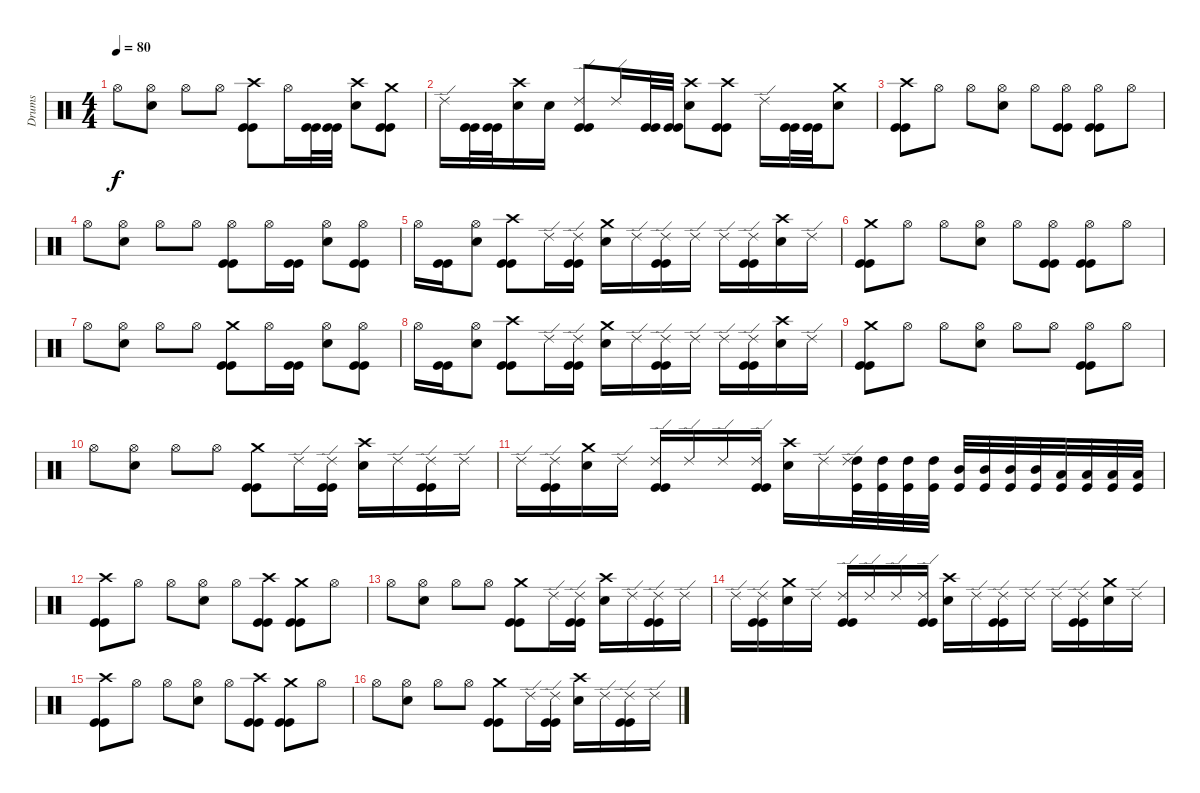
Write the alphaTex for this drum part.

\track ("Drums" "Drums") {instrument percussion}
\staff {score}
\articulation defaults
\ts (4 4)
\tempo 80
\clef neutral
\ks c "Hi-Hat (open)".8{dy f}
("Electric Snare (hit)" "Hi-Hat (open)").8 "Hi-Hat (open)".8 "Hi-Hat (open)".8 ("Kick (hit)" "Kick (hit)" "Crash high (hit)").8 "Hi-Hat (open)".16 ("Kick (hit)" "Kick (hit)").32 ("Kick (hit)" "Kick (hit)").32 ("Electric Snare (hit)" "Crash high (hit)").8 ("Kick (hit)" "Kick (hit)" "Crash medium (hit)").8 |
"Ride (edge) 2".16 ("Kick (hit)" "Kick (hit)").32 ("Kick (hit)" "Kick (hit)").32 ("Electric Snare (hit)" "Crash high (hit)").16 "Electric Snare (hit)".16 ("Kick (hit)" "Kick (hit)" "Ride (edge) 2").8 "Ride (edge) 2".16 ("Kick (hit)" "Kick (hit)").32 ("Kick (hit)" "Kick (hit)").32 ("Electric Snare (hit)" "Crash high (hit)").8 ("Kick (hit)" "Kick (hit)" "Crash high (hit)").8 "Ride (edge) 2".16 ("Kick (hit)" "Kick (hit)").32 ("Kick (hit)" "Kick (hit)").32 ("Electric Snare (hit)" "Crash medium (hit)").8 |
("Kick (hit)" "Kick (hit)" "Crash high (hit)").8 "Hi-Hat (open)".8 "Hi-Hat (open)".8 ("Electric Snare (hit)" "Hi-Hat (open)").8 "Hi-Hat (open)".8 ("Kick (hit)" "Kick (hit)" "Hi-Hat (open)").8 ("Kick (hit)" "Kick (hit)" "Hi-Hat (open)").8 "Hi-Hat (open)".8 |
"Hi-Hat (open)".8 ("Electric Snare (hit)" "Hi-Hat (open)").8 "Hi-Hat (open)".8 "Hi-Hat (open)".8 ("Kick (hit)" "Kick (hit)" "Hi-Hat (open)").8 "Hi-Hat (open)".16 ("Kick (hit)" "Kick (hit)").16 ("Electric Snare (hit)" "Hi-Hat (open)").8 ("Kick (hit)" "Kick (hit)" "Hi-Hat (open)").8 |
"Hi-Hat (open)".16 ("Kick (hit)" "Kick (hit)").16 ("Electric Snare (hit)" "Hi-Hat (open)").8 ("Kick (hit)" "Kick (hit)" "Crash high (hit)").8 "Ride (edge) 2".16 ("Kick (hit)" "Kick (hit)" "Ride (edge) 2").16 ("Electric Snare (hit)" "Crash medium (hit)").16 "Ride (edge) 2".16 ("Kick (hit)" "Kick (hit)" "Ride (edge) 2").16 "Ride (edge) 2".16 "Ride (edge) 2".16 ("Kick (hit)" "Kick (hit)" "Ride (edge) 2").16 ("Electric Snare (hit)" "Crash high (hit)").16 "Ride (edge) 2".16 |
("Kick (hit)" "Kick (hit)" "Crash medium (hit)").8 "Hi-Hat (open)".8 "Hi-Hat (open)".8 ("Electric Snare (hit)" "Hi-Hat (open)").8 "Hi-Hat (open)".8 ("Kick (hit)" "Kick (hit)" "Hi-Hat (open)").8 ("Kick (hit)" "Kick (hit)" "Hi-Hat (open)").8 "Hi-Hat (open)".8 |
"Hi-Hat (open)".8 ("Electric Snare (hit)" "Hi-Hat (open)").8 "Hi-Hat (open)".8 "Hi-Hat (open)".8 ("Kick (hit)" "Kick (hit)" "Crash medium (hit)").8 "Hi-Hat (open)".16 ("Kick (hit)" "Kick (hit)").16 ("Electric Snare (hit)" "Hi-Hat (open)").8 ("Kick (hit)" "Kick (hit)" "Hi-Hat (open)").8 |
"Hi-Hat (open)".16 ("Kick (hit)" "Kick (hit)").16 ("Electric Snare (hit)" "Hi-Hat (open)").8 ("Kick (hit)" "Kick (hit)" "Crash high (hit)").8 "Ride (edge) 2".16 ("Kick (hit)" "Kick (hit)" "Ride (edge) 2").16 ("Electric Snare (hit)" "Crash medium (hit)").16 "Ride (edge) 2".16 ("Kick (hit)" "Kick (hit)" "Ride (edge) 2").16 "Ride (edge) 2".16 "Ride (edge) 2".16 ("Kick (hit)" "Kick (hit)" "Ride (edge) 2").16 ("Electric Snare (hit)" "Crash high (hit)").16 "Ride (edge) 2".16 |
("Kick (hit)" "Kick (hit)" "Crash medium (hit)").8 "Hi-Hat (open)".8 "Hi-Hat (open)".8 ("Electric Snare (hit)" "Hi-Hat (open)").8 "Hi-Hat (open)".8 "Hi-Hat (open)".8 ("Kick (hit)" "Kick (hit)" "Hi-Hat (open)").8 "Hi-Hat (open)".8 |
"Hi-Hat (open)".8 ("Electric Snare (hit)" "Hi-Hat (open)").8 "Hi-Hat (open)".8 "Hi-Hat (open)".8 ("Kick (hit)" "Kick (hit)" "Crash medium (hit)").8 "Ride (edge) 2".16 ("Kick (hit)" "Kick (hit)" "Ride (edge) 2").16 ("Electric Snare (hit)" "Crash high (hit)").16 "Ride (edge) 2".16 ("Kick (hit)" "Kick (hit)" "Ride (edge) 2").16 "Ride (edge) 2".16 |
"Ride (edge) 2".16 ("Kick (hit)" "Kick (hit)" "Ride (edge) 2").16 ("Electric Snare (hit)" "Crash medium (hit)").16 "Ride (edge) 2".16 ("Kick (hit)" "Kick (hit)" "Ride (edge) 2").16 "Ride (edge) 2".16 "Ride (edge) 2".16 ("Kick (hit)" "Kick (hit)" "Ride (edge) 2").16 ("Electric Snare (hit)" "Crash high (hit)").16 "Ride (edge) 2".16 ("Kick (hit)" "High Tom (hit)" "Ride (edge) 2").32 ("Kick (hit)" "High Tom (hit)").32 ("Kick (hit)" "High Tom (hit)").32 ("Kick (hit)" "High Tom (hit)").32 ("Kick (hit)" "Mid Tom (hit)").32 ("Kick (hit)" "Mid Tom (hit)").32 ("Kick (hit)" "Mid Tom (hit)").32 ("Kick (hit)" "Mid Tom (hit)").32 ("Kick (hit)" "Low Tom (hit)").32 ("Kick (hit)" "Low Tom (hit)").32 ("Kick (hit)" "Low Tom (hit)").32 ("Kick (hit)" "Low Tom (hit)").32 |
("Kick (hit)" "Kick (hit)" "Crash high (hit)").8 "Hi-Hat (open)".8 "Hi-Hat (open)".8 ("Electric Snare (hit)" "Hi-Hat (open)").8 "Hi-Hat (open)".8 ("Kick (hit)" "Kick (hit)" "Crash high (hit)").8 ("Kick (hit)" "Kick (hit)" "Crash medium (hit)").8 "Hi-Hat (open)".8 |
"Hi-Hat (open)".8 ("Electric Snare (hit)" "Hi-Hat (open)").8 "Hi-Hat (open)".8 "Hi-Hat (open)".8 ("Kick (hit)" "Kick (hit)" "Crash medium (hit)").8 "Ride (edge) 2".16 ("Kick (hit)" "Kick (hit)" "Ride (edge) 2").16 ("Electric Snare (hit)" "Crash high (hit)").16 "Ride (edge) 2".16 ("Kick (hit)" "Kick (hit)" "Ride (edge) 2").16 "Ride (edge) 2".16 |
"Ride (edge) 2".16 ("Kick (hit)" "Kick (hit)" "Ride (edge) 2").16 ("Electric Snare (hit)" "Crash medium (hit)").16 "Ride (edge) 2".16 ("Kick (hit)" "Kick (hit)" "Ride (edge) 2").16 "Ride (edge) 2".16 "Ride (edge) 2".16 ("Kick (hit)" "Kick (hit)" "Ride (edge) 2").16 ("Electric Snare (hit)" "Crash high (hit)").16 "Ride (edge) 2".16 ("Kick (hit)" "Kick (hit)" "Ride (edge) 2").16 "Ride (edge) 2".16 "Ride (edge) 2".16 ("Kick (hit)" "Kick (hit)" "Ride (edge) 2").16 ("Electric Snare (hit)" "Crash medium (hit)").16 "Ride (edge) 2".16 |
("Kick (hit)" "Kick (hit)" "Crash high (hit)").8 "Hi-Hat (open)".8 "Hi-Hat (open)".8 ("Electric Snare (hit)" "Hi-Hat (open)").8 "Hi-Hat (open)".8 ("Kick (hit)" "Kick (hit)" "Crash high (hit)").8 ("Kick (hit)" "Kick (hit)" "Crash medium (hit)").8 "Hi-Hat (open)".8 |
"Hi-Hat (open)".8 ("Electric Snare (hit)" "Hi-Hat (open)").8 "Hi-Hat (open)".8 "Hi-Hat (open)".8 ("Kick (hit)" "Kick (hit)" "Crash medium (hit)").8 "Ride (edge) 2".16 ("Kick (hit)" "Kick (hit)" "Ride (edge) 2").16 ("Electric Snare (hit)" "Crash high (hit)").16 "Ride (edge) 2".16 ("Kick (hit)" "Kick (hit)" "Ride (edge) 2").16 "Ride (edge) 2".16
